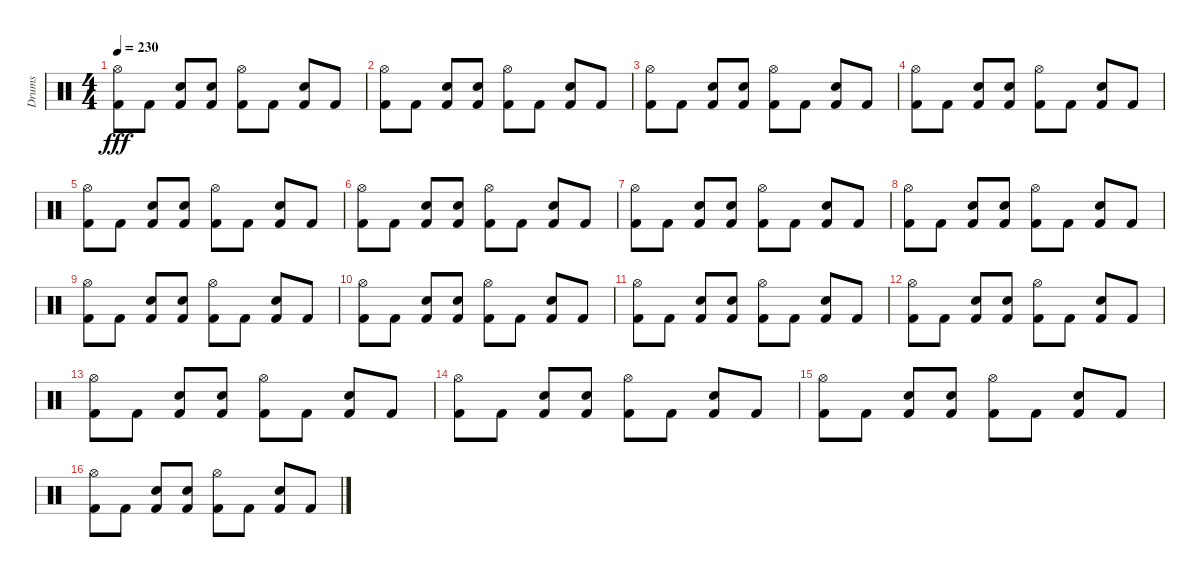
\track ("Drums" "Drums") {instrument percussion}
\staff {score}
\articulation defaults
\ts (4 4)
\tempo 230
\clef neutral
\ks c
("Hi-Hat (open)" "Kick (hit) 2").8{dy fff} "Kick (hit) 2".8 ("Snare (hit) 2" "Kick (hit) 2").8 ("Snare (hit) 2" "Kick (hit) 2").8 ("Hi-Hat (open)" "Kick (hit) 2").8 "Kick (hit) 2".8 ("Snare (hit) 2" "Kick (hit) 2").8 "Kick (hit) 2".8 |
("Hi-Hat (open)" "Kick (hit) 2").8 "Kick (hit) 2".8 ("Snare (hit) 2" "Kick (hit) 2").8 ("Snare (hit) 2" "Kick (hit) 2").8 ("Hi-Hat (open)" "Kick (hit) 2").8 "Kick (hit) 2".8 ("Snare (hit) 2" "Kick (hit) 2").8 "Kick (hit) 2".8 |
("Hi-Hat (open)" "Kick (hit) 2").8 "Kick (hit) 2".8 ("Snare (hit) 2" "Kick (hit) 2").8 ("Snare (hit) 2" "Kick (hit) 2").8 ("Hi-Hat (open)" "Kick (hit) 2").8 "Kick (hit) 2".8 ("Snare (hit) 2" "Kick (hit) 2").8 "Kick (hit) 2".8 |
("Hi-Hat (open)" "Kick (hit) 2").8 "Kick (hit) 2".8 ("Snare (hit) 2" "Kick (hit) 2").8 ("Snare (hit) 2" "Kick (hit) 2").8 ("Hi-Hat (open)" "Kick (hit) 2").8 "Kick (hit) 2".8 ("Snare (hit) 2" "Kick (hit) 2").8 "Kick (hit) 2".8 |
("Hi-Hat (open)" "Kick (hit) 2").8 "Kick (hit) 2".8 ("Snare (hit) 2" "Kick (hit) 2").8 ("Snare (hit) 2" "Kick (hit) 2").8 ("Hi-Hat (open)" "Kick (hit) 2").8 "Kick (hit) 2".8 ("Snare (hit) 2" "Kick (hit) 2").8 "Kick (hit) 2".8 |
("Hi-Hat (open)" "Kick (hit) 2").8 "Kick (hit) 2".8 ("Snare (hit) 2" "Kick (hit) 2").8 ("Snare (hit) 2" "Kick (hit) 2").8 ("Hi-Hat (open)" "Kick (hit) 2").8 "Kick (hit) 2".8 ("Snare (hit) 2" "Kick (hit) 2").8 "Kick (hit) 2".8 |
("Hi-Hat (open)" "Kick (hit) 2").8 "Kick (hit) 2".8 ("Snare (hit) 2" "Kick (hit) 2").8 ("Snare (hit) 2" "Kick (hit) 2").8 ("Hi-Hat (open)" "Kick (hit) 2").8 "Kick (hit) 2".8 ("Snare (hit) 2" "Kick (hit) 2").8 "Kick (hit) 2".8 |
("Hi-Hat (open)" "Kick (hit) 2").8 "Kick (hit) 2".8 ("Snare (hit) 2" "Kick (hit) 2").8 ("Snare (hit) 2" "Kick (hit) 2").8 ("Hi-Hat (open)" "Kick (hit) 2").8 "Kick (hit) 2".8 ("Snare (hit) 2" "Kick (hit) 2").8 "Kick (hit) 2".8 |
("Hi-Hat (open)" "Kick (hit) 2").8 "Kick (hit) 2".8 ("Snare (hit) 2" "Kick (hit) 2").8 ("Snare (hit) 2" "Kick (hit) 2").8 ("Hi-Hat (open)" "Kick (hit) 2").8 "Kick (hit) 2".8 ("Snare (hit) 2" "Kick (hit) 2").8 "Kick (hit) 2".8 |
("Hi-Hat (open)" "Kick (hit) 2").8 "Kick (hit) 2".8 ("Snare (hit) 2" "Kick (hit) 2").8 ("Snare (hit) 2" "Kick (hit) 2").8 ("Hi-Hat (open)" "Kick (hit) 2").8 "Kick (hit) 2".8 ("Snare (hit) 2" "Kick (hit) 2").8 "Kick (hit) 2".8 |
("Hi-Hat (open)" "Kick (hit) 2").8 "Kick (hit) 2".8 ("Snare (hit) 2" "Kick (hit) 2").8 ("Snare (hit) 2" "Kick (hit) 2").8 ("Hi-Hat (open)" "Kick (hit) 2").8 "Kick (hit) 2".8 ("Snare (hit) 2" "Kick (hit) 2").8 "Kick (hit) 2".8 |
("Hi-Hat (open)" "Kick (hit) 2").8 "Kick (hit) 2".8 ("Snare (hit) 2" "Kick (hit) 2").8 ("Snare (hit) 2" "Kick (hit) 2").8 ("Hi-Hat (open)" "Kick (hit) 2").8 "Kick (hit) 2".8 ("Snare (hit) 2" "Kick (hit) 2").8 "Kick (hit) 2".8 |
("Hi-Hat (open)" "Kick (hit) 2").8 "Kick (hit) 2".8 ("Snare (hit) 2" "Kick (hit) 2").8 ("Snare (hit) 2" "Kick (hit) 2").8 ("Hi-Hat (open)" "Kick (hit) 2").8 "Kick (hit) 2".8 ("Snare (hit) 2" "Kick (hit) 2").8 "Kick (hit) 2".8 |
("Hi-Hat (open)" "Kick (hit) 2").8 "Kick (hit) 2".8 ("Snare (hit) 2" "Kick (hit) 2").8 ("Snare (hit) 2" "Kick (hit) 2").8 ("Hi-Hat (open)" "Kick (hit) 2").8 "Kick (hit) 2".8 ("Snare (hit) 2" "Kick (hit) 2").8 "Kick (hit) 2".8 |
("Hi-Hat (open)" "Kick (hit) 2").8 "Kick (hit) 2".8 ("Snare (hit) 2" "Kick (hit) 2").8 ("Snare (hit) 2" "Kick (hit) 2").8 ("Hi-Hat (open)" "Kick (hit) 2").8 "Kick (hit) 2".8 ("Snare (hit) 2" "Kick (hit) 2").8 "Kick (hit) 2".8 |
("Hi-Hat (open)" "Kick (hit) 2").8 "Kick (hit) 2".8 ("Snare (hit) 2" "Kick (hit) 2").8 ("Snare (hit) 2" "Kick (hit) 2").8 ("Hi-Hat (open)" "Kick (hit) 2").8 "Kick (hit) 2".8 ("Snare (hit) 2" "Kick (hit) 2").8 "Kick (hit) 2".8
